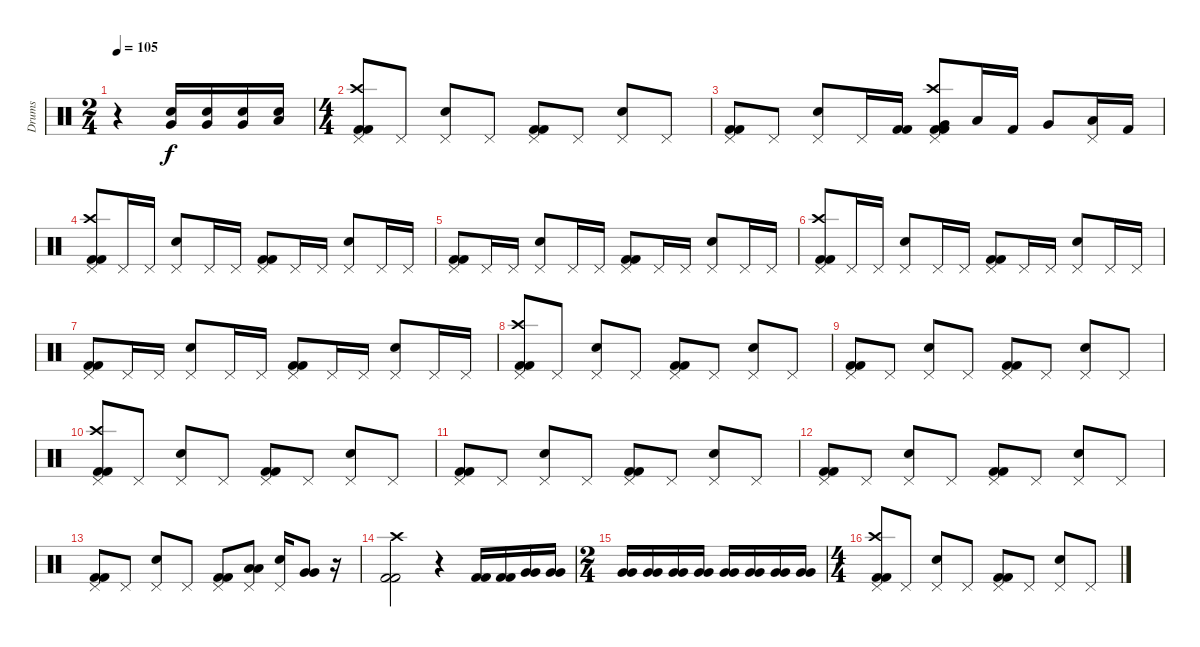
\track ("Drums" "Drums") {instrument percussion}
\staff {score}
\articulation defaults
\ts (2 4)
\tempo 105
\clef neutral
\ks c
r.4{dy f} ("Very Low Tom (hit)" "Electric Snare (hit)").16 ("Very Low Tom (hit)" "Electric Snare (hit)").16 ("Very Low Tom (hit)" "Electric Snare (hit)").16 ("Low Floor Tom (hit)" "Electric Snare (hit)").16 |
\ts (4 4)
("Pedal Hi-Hat (hit)" "Crash high (hit)" "Kick (hit) 2" "Kick (hit) 2").8 "Pedal Hi-Hat (hit)".8 ("Pedal Hi-Hat (hit)" "Electric Snare (hit)").8 "Pedal Hi-Hat (hit)".8 ("Pedal Hi-Hat (hit)" "Kick (hit) 2" "Kick (hit) 2").8 "Pedal Hi-Hat (hit)".8 ("Pedal Hi-Hat (hit)" "Electric Snare (hit)").8 "Pedal Hi-Hat (hit)".8 |
("Pedal Hi-Hat (hit)" "Kick (hit) 2" "Kick (hit) 2").8 "Pedal Hi-Hat (hit)".8 ("Pedal Hi-Hat (hit)" "Electric Snare (hit)").8 "Pedal Hi-Hat (hit)".16 ("Kick (hit) 2" "Kick (hit) 2").16 ("Pedal Hi-Hat (hit)" "Very Low Tom (hit)" "Kick (hit) 2" "Kick (hit) 2" "Crash high (hit)").8 "Low Floor Tom (hit)".16 "Kick (hit) 2".16 "Very Low Tom (hit)".8 ("Pedal Hi-Hat (hit)" "Low Floor Tom (hit)").16 "Kick (hit) 2".16 |
("Pedal Hi-Hat (hit)" "Crash high (hit)" "Kick (hit) 2" "Kick (hit) 2").8 "Pedal Hi-Hat (hit)".16 "Pedal Hi-Hat (hit)".16 ("Pedal Hi-Hat (hit)" "Electric Snare (hit)").8 "Pedal Hi-Hat (hit)".16 "Pedal Hi-Hat (hit)".16 ("Pedal Hi-Hat (hit)" "Kick (hit) 2" "Kick (hit) 2").8 "Pedal Hi-Hat (hit)".16 "Pedal Hi-Hat (hit)".16 ("Pedal Hi-Hat (hit)" "Electric Snare (hit)").8 "Pedal Hi-Hat (hit)".16 "Pedal Hi-Hat (hit)".16 |
("Pedal Hi-Hat (hit)" "Kick (hit) 2" "Kick (hit) 2").8 "Pedal Hi-Hat (hit)".16 "Pedal Hi-Hat (hit)".16 ("Pedal Hi-Hat (hit)" "Electric Snare (hit)").8 "Pedal Hi-Hat (hit)".16 "Pedal Hi-Hat (hit)".16 ("Pedal Hi-Hat (hit)" "Kick (hit) 2" "Kick (hit) 2").8 "Pedal Hi-Hat (hit)".16 "Pedal Hi-Hat (hit)".16 ("Pedal Hi-Hat (hit)" "Electric Snare (hit)").8 "Pedal Hi-Hat (hit)".16 "Pedal Hi-Hat (hit)".16 |
("Pedal Hi-Hat (hit)" "Crash high (hit)" "Kick (hit) 2" "Kick (hit) 2").8 "Pedal Hi-Hat (hit)".16 "Pedal Hi-Hat (hit)".16 ("Pedal Hi-Hat (hit)" "Electric Snare (hit)").8 "Pedal Hi-Hat (hit)".16 "Pedal Hi-Hat (hit)".16 ("Pedal Hi-Hat (hit)" "Kick (hit) 2" "Kick (hit) 2").8 "Pedal Hi-Hat (hit)".16 "Pedal Hi-Hat (hit)".16 ("Pedal Hi-Hat (hit)" "Electric Snare (hit)").8 "Pedal Hi-Hat (hit)".16 "Pedal Hi-Hat (hit)".16 |
("Pedal Hi-Hat (hit)" "Kick (hit) 2" "Kick (hit) 2").8 "Pedal Hi-Hat (hit)".16 "Pedal Hi-Hat (hit)".16 ("Pedal Hi-Hat (hit)" "Electric Snare (hit)").8 "Pedal Hi-Hat (hit)".16 "Pedal Hi-Hat (hit)".16 ("Pedal Hi-Hat (hit)" "Kick (hit) 2" "Kick (hit) 2").8 "Pedal Hi-Hat (hit)".16 "Pedal Hi-Hat (hit)".16 ("Pedal Hi-Hat (hit)" "Electric Snare (hit)").8 "Pedal Hi-Hat (hit)".16 "Pedal Hi-Hat (hit)".16 |
("Pedal Hi-Hat (hit)" "Crash high (hit)" "Kick (hit) 2" "Kick (hit) 2").8 "Pedal Hi-Hat (hit)".8 ("Pedal Hi-Hat (hit)" "Electric Snare (hit)").8 "Pedal Hi-Hat (hit)".8 ("Pedal Hi-Hat (hit)" "Kick (hit) 2" "Kick (hit) 2").8 "Pedal Hi-Hat (hit)".8 ("Pedal Hi-Hat (hit)" "Electric Snare (hit)").8 "Pedal Hi-Hat (hit)".8 |
("Pedal Hi-Hat (hit)" "Kick (hit) 2" "Kick (hit) 2").8 "Pedal Hi-Hat (hit)".8 ("Pedal Hi-Hat (hit)" "Electric Snare (hit)").8 "Pedal Hi-Hat (hit)".8 ("Pedal Hi-Hat (hit)" "Kick (hit) 2" "Kick (hit) 2").8 "Pedal Hi-Hat (hit)".8 ("Pedal Hi-Hat (hit)" "Electric Snare (hit)").8 "Pedal Hi-Hat (hit)".8 |
("Pedal Hi-Hat (hit)" "Crash high (hit)" "Kick (hit) 2" "Kick (hit) 2").8 "Pedal Hi-Hat (hit)".8 ("Pedal Hi-Hat (hit)" "Electric Snare (hit)").8 "Pedal Hi-Hat (hit)".8 ("Pedal Hi-Hat (hit)" "Kick (hit) 2" "Kick (hit) 2").8 "Pedal Hi-Hat (hit)".8 ("Pedal Hi-Hat (hit)" "Electric Snare (hit)").8 "Pedal Hi-Hat (hit)".8 |
("Pedal Hi-Hat (hit)" "Kick (hit) 2" "Kick (hit) 2").8 "Pedal Hi-Hat (hit)".8 ("Pedal Hi-Hat (hit)" "Electric Snare (hit)").8 "Pedal Hi-Hat (hit)".8 ("Pedal Hi-Hat (hit)" "Kick (hit) 2" "Kick (hit) 2").8 "Pedal Hi-Hat (hit)".8 ("Pedal Hi-Hat (hit)" "Electric Snare (hit)").8 "Pedal Hi-Hat (hit)".8 |
("Pedal Hi-Hat (hit)" "Kick (hit) 2" "Kick (hit) 2").8 "Pedal Hi-Hat (hit)".8 ("Pedal Hi-Hat (hit)" "Electric Snare (hit)").8 "Pedal Hi-Hat (hit)".8 ("Pedal Hi-Hat (hit)" "Kick (hit) 2" "Kick (hit) 2").8 "Pedal Hi-Hat (hit)".8 ("Pedal Hi-Hat (hit)" "Electric Snare (hit)").8 "Pedal Hi-Hat (hit)".8 |
("Pedal Hi-Hat (hit)" "Kick (hit) 2" "Kick (hit) 2").8 "Pedal Hi-Hat (hit)".8 ("Pedal Hi-Hat (hit)" "Electric Snare (hit)").8 "Pedal Hi-Hat (hit)".8 ("Pedal Hi-Hat (hit)" "Kick (hit) 2" "Kick (hit) 2").8 ("Pedal Hi-Hat (hit)" "Low Floor Tom (hit)" "Low Floor Tom (hit)").8 ("Pedal Hi-Hat (hit)" "Electric Snare (hit)").16 ("Very Low Tom (hit)" "Very Low Tom (hit)").8 r.16 |
("Crash high (hit)" "Kick (hit) 2" "Kick (hit) 2").2 r.4 ("Kick (hit) 2" "Kick (hit) 2").16 ("Kick (hit) 2" "Kick (hit) 2").16 ("Very Low Tom (hit)" "Very Low Tom (hit)").16 ("Very Low Tom (hit)" "Very Low Tom (hit)").16 |
\ts (2 4)
("Very Low Tom (hit)" "Very Low Tom (hit)").16 ("Very Low Tom (hit)" "Very Low Tom (hit)").16 ("Very Low Tom (hit)" "Very Low Tom (hit)").16 ("Very Low Tom (hit)" "Very Low Tom (hit)").16 ("Very Low Tom (hit)" "Very Low Tom (hit)").16 ("Very Low Tom (hit)" "Very Low Tom (hit)").16 ("Very Low Tom (hit)" "Very Low Tom (hit)").16 ("Very Low Tom (hit)" "Very Low Tom (hit)").16 |
\ts (4 4)
("Pedal Hi-Hat (hit)" "Crash high (hit)" "Kick (hit) 2" "Kick (hit) 2").8 "Pedal Hi-Hat (hit)".8 ("Pedal Hi-Hat (hit)" "Electric Snare (hit)").8 "Pedal Hi-Hat (hit)".8 ("Pedal Hi-Hat (hit)" "Kick (hit) 2" "Kick (hit) 2").8 "Pedal Hi-Hat (hit)".8 ("Pedal Hi-Hat (hit)" "Electric Snare (hit)").8 "Pedal Hi-Hat (hit)".8
